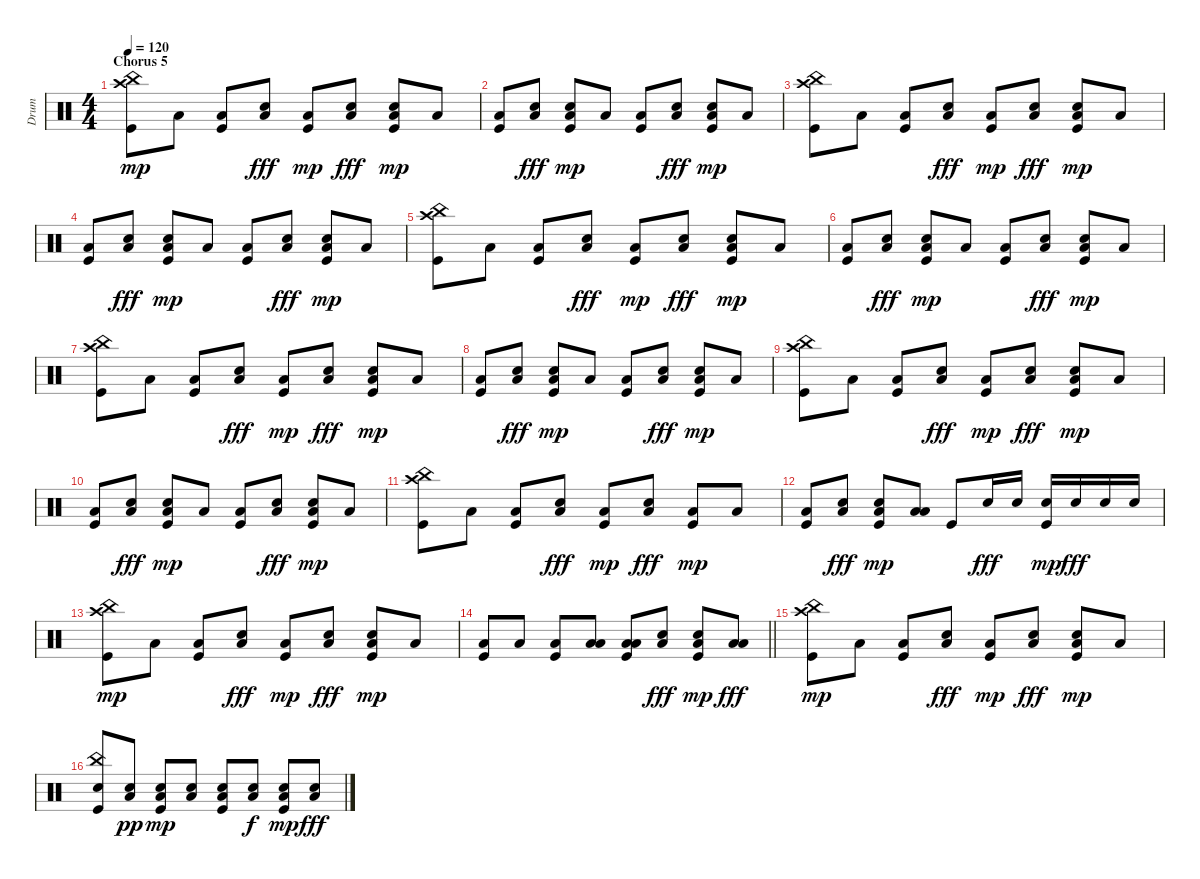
\track ("Drum" "Drum") {instrument percussion}
\staff {score}
\articulation defaults
\ts (4 4)
\section ("" "Chorus 5")
\tempo 120
\clef neutral
\ks c
("Crash high (hit)" "Kick (hit)" "China (hit)").8{dy mp} "Low Floor Tom (hit)".8 ("Low Floor Tom (hit)" "Kick (hit)").8 ("Low Floor Tom (hit)" "Electric Snare (hit)").8{dy fff} ("Low Floor Tom (hit)" "Kick (hit)").8{dy mp} ("Low Floor Tom (hit)" "Electric Snare (hit)").8{dy fff} ("Low Floor Tom (hit)" "Electric Snare (hit)" "Kick (hit)").8{dy mp} "Low Floor Tom (hit)".8 |
("Low Floor Tom (hit)" "Kick (hit)").8 ("Low Floor Tom (hit)" "Electric Snare (hit)").8{dy fff} ("Low Floor Tom (hit)" "Electric Snare (hit)" "Kick (hit)").8{dy mp} "Low Floor Tom (hit)".8 ("Low Floor Tom (hit)" "Kick (hit)").8 ("Low Floor Tom (hit)" "Electric Snare (hit)").8{dy fff} ("Low Floor Tom (hit)" "Electric Snare (hit)" "Kick (hit)").8{dy mp} "Low Floor Tom (hit)".8 |
("Crash high (hit)" "Kick (hit)" "China (hit)").8 "Low Floor Tom (hit)".8 ("Low Floor Tom (hit)" "Kick (hit)").8 ("Low Floor Tom (hit)" "Electric Snare (hit)").8{dy fff} ("Low Floor Tom (hit)" "Kick (hit)").8{dy mp} ("Low Floor Tom (hit)" "Electric Snare (hit)").8{dy fff} ("Low Floor Tom (hit)" "Electric Snare (hit)" "Kick (hit)").8{dy mp} "Low Floor Tom (hit)".8 |
("Low Floor Tom (hit)" "Kick (hit)").8 ("Low Floor Tom (hit)" "Electric Snare (hit)").8{dy fff} ("Low Floor Tom (hit)" "Electric Snare (hit)" "Kick (hit)").8{dy mp} "Low Floor Tom (hit)".8 ("Low Floor Tom (hit)" "Kick (hit)").8 ("Low Floor Tom (hit)" "Electric Snare (hit)").8{dy fff} ("Low Floor Tom (hit)" "Electric Snare (hit)" "Kick (hit)").8{dy mp} "Low Floor Tom (hit)".8 |
("Crash high (hit)" "Kick (hit)" "China (hit)").8 "Low Floor Tom (hit)".8 ("Low Floor Tom (hit)" "Kick (hit)").8 ("Low Floor Tom (hit)" "Electric Snare (hit)").8{dy fff} ("Low Floor Tom (hit)" "Kick (hit)").8{dy mp} ("Low Floor Tom (hit)" "Electric Snare (hit)").8{dy fff} ("Low Floor Tom (hit)" "Electric Snare (hit)" "Kick (hit)").8{dy mp} "Low Floor Tom (hit)".8 |
("Low Floor Tom (hit)" "Kick (hit)").8 ("Low Floor Tom (hit)" "Electric Snare (hit)").8{dy fff} ("Low Floor Tom (hit)" "Electric Snare (hit)" "Kick (hit)").8{dy mp} "Low Floor Tom (hit)".8 ("Low Floor Tom (hit)" "Kick (hit)").8 ("Low Floor Tom (hit)" "Electric Snare (hit)").8{dy fff} ("Low Floor Tom (hit)" "Electric Snare (hit)" "Kick (hit)").8{dy mp} "Low Floor Tom (hit)".8 |
("Crash high (hit)" "Kick (hit)" "China (hit)").8 "Low Floor Tom (hit)".8 ("Low Floor Tom (hit)" "Kick (hit)").8 ("Low Floor Tom (hit)" "Electric Snare (hit)").8{dy fff} ("Low Floor Tom (hit)" "Kick (hit)").8{dy mp} ("Low Floor Tom (hit)" "Electric Snare (hit)").8{dy fff} ("Low Floor Tom (hit)" "Electric Snare (hit)" "Kick (hit)").8{dy mp} "Low Floor Tom (hit)".8 |
("Low Floor Tom (hit)" "Kick (hit)").8 ("Low Floor Tom (hit)" "Electric Snare (hit)").8{dy fff} ("Low Floor Tom (hit)" "Electric Snare (hit)" "Kick (hit)").8{dy mp} "Low Floor Tom (hit)".8 ("Low Floor Tom (hit)" "Kick (hit)").8 ("Low Floor Tom (hit)" "Electric Snare (hit)").8{dy fff} ("Low Floor Tom (hit)" "Electric Snare (hit)" "Kick (hit)").8{dy mp} "Low Floor Tom (hit)".8 |
("Crash high (hit)" "Kick (hit)" "China (hit)").8 "Low Floor Tom (hit)".8 ("Low Floor Tom (hit)" "Kick (hit)").8 ("Low Floor Tom (hit)" "Electric Snare (hit)").8{dy fff} ("Low Floor Tom (hit)" "Kick (hit)").8{dy mp} ("Low Floor Tom (hit)" "Electric Snare (hit)").8{dy fff} ("Low Floor Tom (hit)" "Electric Snare (hit)" "Kick (hit)").8{dy mp} "Low Floor Tom (hit)".8 |
("Low Floor Tom (hit)" "Kick (hit)").8 ("Low Floor Tom (hit)" "Electric Snare (hit)").8{dy fff} ("Low Floor Tom (hit)" "Electric Snare (hit)" "Kick (hit)").8{dy mp} "Low Floor Tom (hit)".8 ("Low Floor Tom (hit)" "Kick (hit)").8 ("Low Floor Tom (hit)" "Electric Snare (hit)").8{dy fff} ("Low Floor Tom (hit)" "Electric Snare (hit)" "Kick (hit)").8{dy mp} "Low Floor Tom (hit)".8 |
("Crash high (hit)" "Kick (hit)" "China (hit)").8 "Low Floor Tom (hit)".8 ("Low Floor Tom (hit)" "Kick (hit)").8 ("Low Floor Tom (hit)" "Electric Snare (hit)").8{dy fff} ("Low Floor Tom (hit)" "Kick (hit)").8{dy mp} ("Low Floor Tom (hit)" "Electric Snare (hit)").8{dy fff} ("Low Floor Tom (hit)" "Kick (hit)").8{dy mp} "Low Floor Tom (hit)".8 |
("Low Floor Tom (hit)" "Kick (hit)").8 ("Low Floor Tom (hit)" "Electric Snare (hit)").8{dy fff} ("Low Floor Tom (hit)" "Electric Snare (hit)" "Kick (hit)").8{dy mp} ("Low Tom (hit)" "Low Floor Tom (hit)").8 "Kick (hit)".8 "Electric Snare (hit)".16{dy fff} "Electric Snare (hit)".16 ("Electric Snare (hit)" "Kick (hit)").16{dy mp} "Electric Snare (hit)".16{dy fff} "Electric Snare (hit)".16 "Electric Snare (hit)".16 |
("Crash high (hit)" "Kick (hit)" "China (hit)").8{dy mp} "Low Floor Tom (hit)".8 ("Low Floor Tom (hit)" "Kick (hit)").8 ("Low Floor Tom (hit)" "Electric Snare (hit)").8{dy fff} ("Low Floor Tom (hit)" "Kick (hit)").8{dy mp} ("Low Floor Tom (hit)" "Electric Snare (hit)").8{dy fff} ("Low Floor Tom (hit)" "Electric Snare (hit)" "Kick (hit)").8{dy mp} "Low Floor Tom (hit)".8 |
\barLineRight lightlight
("Low Floor Tom (hit)" "Kick (hit)").8 "Low Floor Tom (hit)".8 ("Low Floor Tom (hit)" "Kick (hit)").8 ("Low Tom (hit)" "Low Floor Tom (hit)").8 ("Low Tom (hit)" "Low Floor Tom (hit)" "Kick (hit)").8 ("Low Floor Tom (hit)" "Electric Snare (hit)").8{dy fff} ("Low Floor Tom (hit)" "Electric Snare (hit)" "Kick (hit)").8{dy mp} ("Low Floor Tom (hit)" "Low Tom (hit)").8{dy fff} |
("Crash high (hit)" "Kick (hit)" "China (hit)").8{dy mp} "Low Floor Tom (hit)".8 ("Low Floor Tom (hit)" "Kick (hit)").8 ("Low Floor Tom (hit)" "Electric Snare (hit)").8{dy fff} ("Low Floor Tom (hit)" "Kick (hit)").8{dy mp} ("Low Floor Tom (hit)" "Electric Snare (hit)").8{dy fff} ("Low Floor Tom (hit)" "Electric Snare (hit)" "Kick (hit)").8{dy mp} "Low Floor Tom (hit)".8 |
("China (hit)" "Electric Snare (hit)" "Kick (hit)").8 ("Low Floor Tom (hit)" "Electric Snare (hit)").8{dy pp} ("Low Floor Tom (hit)" "Electric Snare (hit)" "Kick (hit)").8{dy mp} ("Low Floor Tom (hit)" "Electric Snare (hit)").8 ("Low Floor Tom (hit)" "Electric Snare (hit)" "Kick (hit)").8 ("Low Floor Tom (hit)" "Electric Snare (hit)").8{dy f} ("Low Floor Tom (hit)" "Electric Snare (hit)" "Kick (hit)").8{dy mp} ("Low Floor Tom (hit)" "Electric Snare (hit)").8{dy fff}
